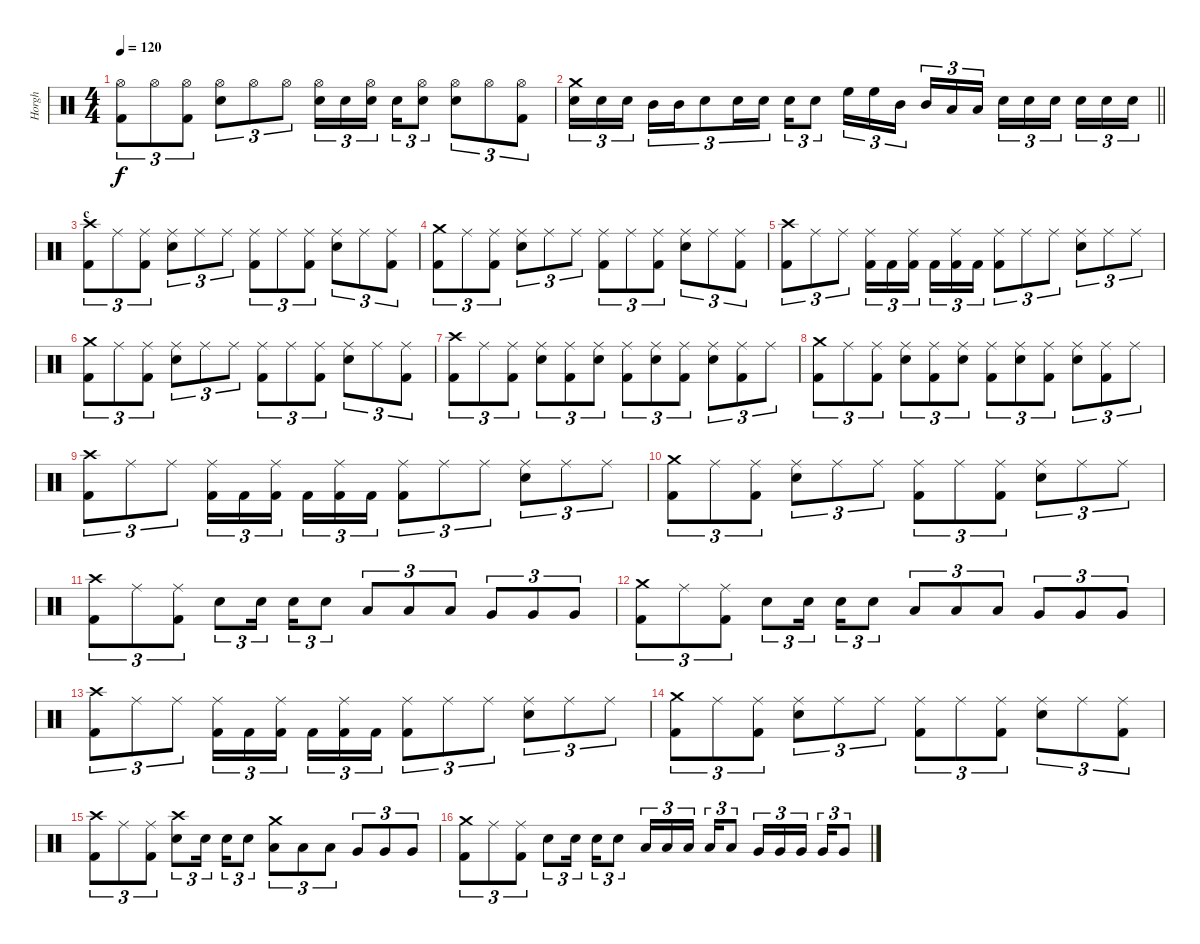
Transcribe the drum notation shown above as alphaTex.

\track ("Horgh" "Horgh") {instrument percussion}
\staff {score}
\articulation defaults
\ts (4 4)
\tempo 120
\clef neutral
\ks c
("Hi-Hat (open)" "Kick (hit) 2").8{tu (3 2) dy f} "Hi-Hat (open)".8{tu (3 2)} ("Hi-Hat (open)" "Kick (hit) 2").8{tu (3 2)} ("Hi-Hat (open)" "Electric Snare (hit)").8{tu (3 2)} "Hi-Hat (open)".8{tu (3 2)} "Hi-Hat (open)".8{tu (3 2)} ("Hi-Hat (open)" "Electric Snare (hit)").16{tu (3 2)} "Electric Snare (hit)".16{tu (3 2)} ("Hi-Hat (open)" "Electric Snare (hit)").16{tu (3 2) beam splitsecondary} "Electric Snare (hit)".16{tu (3 2)} ("Hi-Hat (open)" "Electric Snare (hit)").8{tu (3 2)} ("Hi-Hat (open)" "Electric Snare (hit)").8{tu (3 2)} "Hi-Hat (open)".8{tu (3 2)} ("Hi-Hat (open)" "Kick (hit) 2").8{tu (3 2)} |
\barLineRight lightlight
("Crash medium (hit)" "Electric Snare (hit)").16{tu (3 2)} "Electric Snare (hit)".16{tu (3 2)} "Electric Snare (hit)".16{tu (3 2) beam splitsecondary} "Mid Tom (hit)".16{tu (3 2)} "Mid Tom (hit)".16{tu (3 2)} "Electric Snare (hit)".8{tu (3 2)} "Electric Snare (hit)".16{tu (3 2)} "Electric Snare (hit)".16{tu (3 2) beam splitsecondary} "Electric Snare (hit)".16{tu (3 2)} "Electric Snare (hit)".8{tu (3 2)} "High Floor Tom (hit)".16{tu (3 2)} "High Floor Tom (hit)".16{tu (3 2)} "Mid Tom (hit)".16{tu (3 2) beam splitsecondary} "Mid Tom (hit)".16{tu (3 2)} "Low Tom (hit)".16{tu (3 2)} "Low Tom (hit)".16{tu (3 2)} "Electric Snare (hit)".16{tu (3 2)} "Electric Snare (hit)".16{tu (3 2)} "Electric Snare (hit)".16{tu (3 2) beam splitsecondary} "Electric Snare (hit)".16{tu (3 2)} "Electric Snare (hit)".16{tu (3 2)} "Electric Snare (hit)".16{tu (3 2)} |
\section ("" "c")
("Crash high (hit)" "Kick (hit) 2").8{tu (3 2)} "Ride (middle)".8{tu (3 2)} ("Ride (middle)" "Kick (hit) 2").8{tu (3 2)} ("Ride (middle)" "Electric Snare (hit)").8{tu (3 2)} "Ride (middle)".8{tu (3 2)} "Ride (middle)".8{tu (3 2)} ("Ride (middle)" "Kick (hit) 2").8{tu (3 2)} "Ride (middle)".8{tu (3 2)} ("Ride (middle)" "Kick (hit) 2").8{tu (3 2)} ("Ride (middle)" "Electric Snare (hit)").8{tu (3 2)} "Ride (middle)".8{tu (3 2)} ("Ride (middle)" "Kick (hit) 2").8{tu (3 2)} |
("Crash medium (hit)" "Kick (hit) 2").8{tu (3 2)} "Ride (middle)".8{tu (3 2)} ("Ride (middle)" "Kick (hit) 2").8{tu (3 2)} ("Ride (middle)" "Electric Snare (hit)").8{tu (3 2)} "Ride (middle)".8{tu (3 2)} "Ride (middle)".8{tu (3 2)} ("Ride (middle)" "Kick (hit) 2").8{tu (3 2)} "Ride (middle)".8{tu (3 2)} ("Ride (middle)" "Kick (hit) 2").8{tu (3 2)} ("Ride (middle)" "Electric Snare (hit)").8{tu (3 2)} "Ride (middle)".8{tu (3 2)} ("Ride (middle)" "Kick (hit) 2").8{tu (3 2)} |
("Crash high (hit)" "Kick (hit) 2").8{tu (3 2)} "Ride (middle)".8{tu (3 2)} "Ride (middle)".8{tu (3 2)} ("Ride (middle)" "Kick (hit) 2").16{tu (3 2)} "Kick (hit) 2".16{tu (3 2)} ("Ride (middle)" "Kick (hit) 2").16{tu (3 2) beam splitsecondary} "Kick (hit) 2".16{tu (3 2)} ("Ride (middle)" "Kick (hit) 2").16{tu (3 2)} "Kick (hit) 2".16{tu (3 2)} ("Ride (middle)" "Kick (hit) 2").8{tu (3 2)} "Ride (middle)".8{tu (3 2)} "Ride (middle)".8{tu (3 2)} ("Ride (middle)" "Electric Snare (hit)").8{tu (3 2)} "Ride (middle)".8{tu (3 2)} "Ride (middle)".8{tu (3 2)} |
("Crash medium (hit)" "Kick (hit) 2").8{tu (3 2)} "Ride (middle)".8{tu (3 2)} ("Ride (middle)" "Kick (hit) 2").8{tu (3 2)} ("Ride (middle)" "Electric Snare (hit)").8{tu (3 2)} "Ride (middle)".8{tu (3 2)} "Ride (middle)".8{tu (3 2)} ("Ride (middle)" "Kick (hit) 2").8{tu (3 2)} "Ride (middle)".8{tu (3 2)} ("Ride (middle)" "Kick (hit) 2").8{tu (3 2)} ("Ride (middle)" "Electric Snare (hit)").8{tu (3 2)} "Ride (middle)".8{tu (3 2)} ("Ride (middle)" "Kick (hit) 2").8{tu (3 2)} |
("Crash high (hit)" "Kick (hit) 2").8{tu (3 2)} "Ride (middle)".8{tu (3 2)} ("Ride (middle)" "Kick (hit) 2").8{tu (3 2)} ("Ride (middle)" "Electric Snare (hit)").8{tu (3 2)} ("Ride (middle)" "Kick (hit) 2").8{tu (3 2)} ("Ride (middle)" "Electric Snare (hit)").8{tu (3 2)} ("Ride (middle)" "Kick (hit) 2").8{tu (3 2)} ("Ride (middle)" "Electric Snare (hit)").8{tu (3 2)} ("Ride (middle)" "Kick (hit) 2").8{tu (3 2)} ("Ride (middle)" "Electric Snare (hit)").8{tu (3 2)} ("Ride (middle)" "Kick (hit) 2").8{tu (3 2)} "Ride (middle)".8{tu (3 2)} |
("Crash medium (hit)" "Kick (hit) 2").8{tu (3 2)} "Ride (middle)".8{tu (3 2)} ("Ride (middle)" "Kick (hit) 2").8{tu (3 2)} ("Ride (middle)" "Electric Snare (hit)").8{tu (3 2)} ("Ride (middle)" "Kick (hit) 2").8{tu (3 2)} ("Ride (middle)" "Electric Snare (hit)").8{tu (3 2)} ("Ride (middle)" "Kick (hit) 2").8{tu (3 2)} ("Ride (middle)" "Electric Snare (hit)").8{tu (3 2)} ("Ride (middle)" "Kick (hit) 2").8{tu (3 2)} ("Ride (middle)" "Electric Snare (hit)").8{tu (3 2)} ("Ride (middle)" "Kick (hit) 2").8{tu (3 2)} "Ride (middle)".8{tu (3 2)} |
("Crash high (hit)" "Kick (hit) 2").8{tu (3 2)} "Ride (middle)".8{tu (3 2)} "Ride (middle)".8{tu (3 2)} ("Ride (middle)" "Kick (hit) 2").16{tu (3 2)} "Kick (hit) 2".16{tu (3 2)} ("Ride (middle)" "Kick (hit) 2").16{tu (3 2) beam splitsecondary} "Kick (hit) 2".16{tu (3 2)} ("Ride (middle)" "Kick (hit) 2").16{tu (3 2)} "Kick (hit) 2".16{tu (3 2)} ("Ride (middle)" "Kick (hit) 2").8{tu (3 2)} "Ride (middle)".8{tu (3 2)} "Ride (middle)".8{tu (3 2)} ("Ride (middle)" "Electric Snare (hit)").8{tu (3 2)} "Ride (middle)".8{tu (3 2)} "Ride (middle)".8{tu (3 2)} |
("Crash medium (hit)" "Kick (hit) 2").8{tu (3 2)} "Ride (middle)".8{tu (3 2)} ("Ride (middle)" "Kick (hit) 2").8{tu (3 2)} ("Ride (middle)" "Electric Snare (hit)").8{tu (3 2)} "Ride (middle)".8{tu (3 2)} "Ride (middle)".8{tu (3 2)} ("Ride (middle)" "Kick (hit) 2").8{tu (3 2)} "Ride (middle)".8{tu (3 2)} ("Ride (middle)" "Kick (hit) 2").8{tu (3 2)} ("Ride (middle)" "Electric Snare (hit)").8{tu (3 2)} "Ride (middle)".8{tu (3 2)} "Ride (middle)".8{tu (3 2)} |
("Crash high (hit)" "Kick (hit) 2").8{tu (3 2)} "Ride (middle)".8{tu (3 2)} ("Ride (middle)" "Kick (hit) 2").8{tu (3 2)} "Electric Snare (hit)".8{tu (3 2)} "Electric Snare (hit)".16{tu (3 2) beam splitsecondary} "Electric Snare (hit)".16{tu (3 2)} "Electric Snare (hit)".8{tu (3 2)} "Low Tom (hit)".8{tu (3 2)} "Low Tom (hit)".8{tu (3 2)} "Low Tom (hit)".8{tu (3 2)} "Very Low Tom (hit)".8{tu (3 2)} "Very Low Tom (hit)".8{tu (3 2)} "Very Low Tom (hit)".8{tu (3 2)} |
("Crash medium (hit)" "Kick (hit) 2").8{tu (3 2)} "Ride (middle)".8{tu (3 2)} ("Ride (middle)" "Kick (hit) 2").8{tu (3 2)} "Electric Snare (hit)".8{tu (3 2)} "Electric Snare (hit)".16{tu (3 2) beam splitsecondary} "Electric Snare (hit)".16{tu (3 2)} "Electric Snare (hit)".8{tu (3 2)} "Low Tom (hit)".8{tu (3 2)} "Low Tom (hit)".8{tu (3 2)} "Low Tom (hit)".8{tu (3 2)} "Very Low Tom (hit)".8{tu (3 2)} "Very Low Tom (hit)".8{tu (3 2)} "Very Low Tom (hit)".8{tu (3 2)} |
("Crash high (hit)" "Kick (hit) 2").8{tu (3 2)} "Ride (middle)".8{tu (3 2)} "Ride (middle)".8{tu (3 2)} ("Ride (middle)" "Kick (hit) 2").16{tu (3 2)} "Kick (hit) 2".16{tu (3 2)} ("Ride (middle)" "Kick (hit) 2").16{tu (3 2) beam splitsecondary} "Kick (hit) 2".16{tu (3 2)} ("Ride (middle)" "Kick (hit) 2").16{tu (3 2)} "Kick (hit) 2".16{tu (3 2)} ("Ride (middle)" "Kick (hit) 2").8{tu (3 2)} "Ride (middle)".8{tu (3 2)} "Ride (middle)".8{tu (3 2)} ("Ride (middle)" "Electric Snare (hit)").8{tu (3 2)} "Ride (middle)".8{tu (3 2)} "Ride (middle)".8{tu (3 2)} |
("Crash medium (hit)" "Kick (hit) 2").8{tu (3 2)} "Ride (middle)".8{tu (3 2)} ("Ride (middle)" "Kick (hit) 2").8{tu (3 2)} ("Ride (middle)" "Electric Snare (hit)").8{tu (3 2)} "Ride (middle)".8{tu (3 2)} "Ride (middle)".8{tu (3 2)} ("Ride (middle)" "Kick (hit) 2").8{tu (3 2)} "Ride (middle)".8{tu (3 2)} ("Ride (middle)" "Kick (hit) 2").8{tu (3 2)} ("Ride (middle)" "Electric Snare (hit)").8{tu (3 2)} "Ride (middle)".8{tu (3 2)} ("Ride (middle)" "Kick (hit) 2").8{tu (3 2)} |
("Crash high (hit)" "Kick (hit) 2").8{tu (3 2)} "Ride (middle)".8{tu (3 2)} ("Ride (middle)" "Kick (hit) 2").8{tu (3 2)} ("Crash high (hit)" "Electric Snare (hit)").8{tu (3 2)} "Electric Snare (hit)".16{tu (3 2) beam splitsecondary} "Electric Snare (hit)".16{tu (3 2)} "Electric Snare (hit)".8{tu (3 2)} ("Crash medium (hit)" "Low Tom (hit)").8{tu (3 2)} "Low Tom (hit)".8{tu (3 2)} "Low Tom (hit)".8{tu (3 2)} "Very Low Tom (hit)".8{tu (3 2)} "Very Low Tom (hit)".8{tu (3 2)} "Very Low Tom (hit)".8{tu (3 2)} |
("Crash medium (hit)" "Kick (hit) 2").8{tu (3 2)} "Ride (middle)".8{tu (3 2)} ("Ride (middle)" "Kick (hit) 2").8{tu (3 2)} "Electric Snare (hit)".8{tu (3 2)} "Electric Snare (hit)".16{tu (3 2) beam splitsecondary} "Electric Snare (hit)".16{tu (3 2)} "Electric Snare (hit)".8{tu (3 2)} "Low Tom (hit)".16{tu (3 2)} "Low Tom (hit)".16{tu (3 2)} "Low Tom (hit)".16{tu (3 2) beam splitsecondary} "Low Tom (hit)".16{tu (3 2)} "Low Tom (hit)".8{tu (3 2)} "Very Low Tom (hit)".16{tu (3 2)} "Very Low Tom (hit)".16{tu (3 2)} "Very Low Tom (hit)".16{tu (3 2) beam splitsecondary} "Very Low Tom (hit)".16{tu (3 2)} "Very Low Tom (hit)".8{tu (3 2)}
